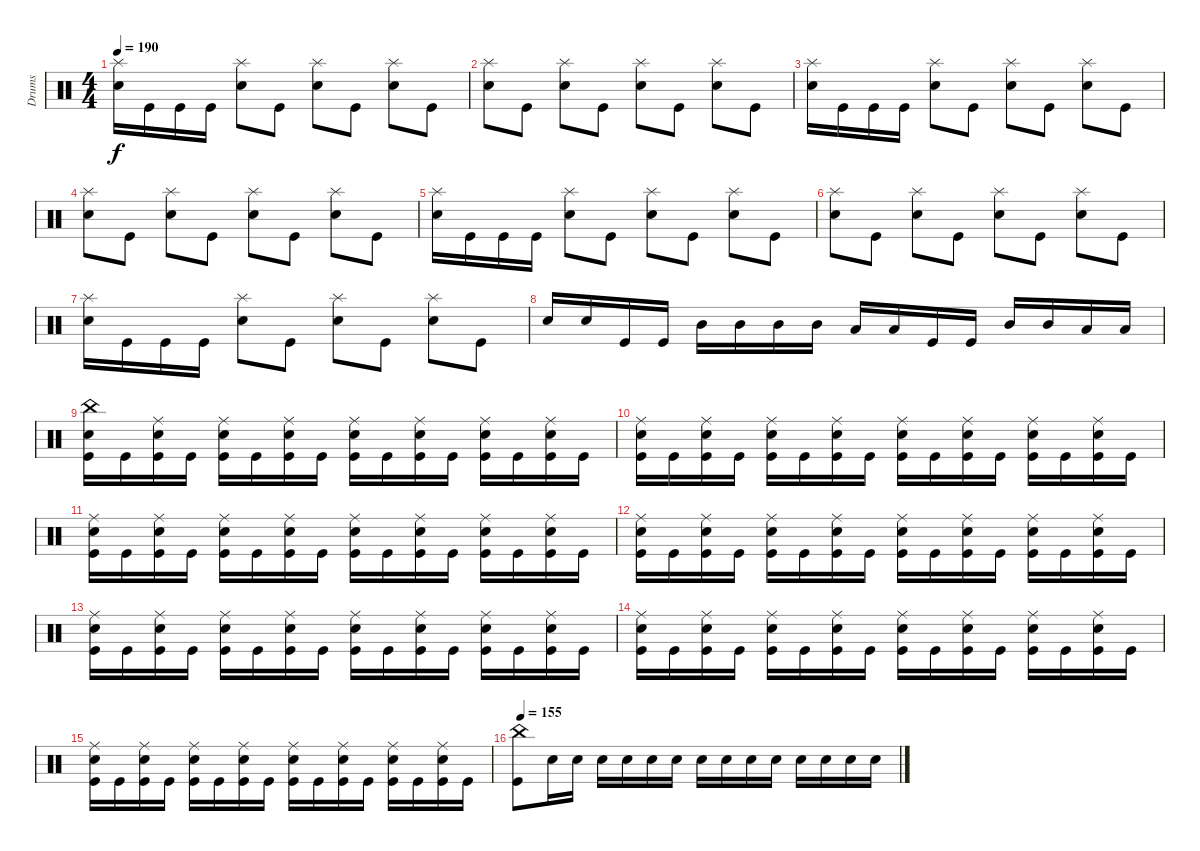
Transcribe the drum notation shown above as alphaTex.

\track ("Drums" "Drums") {instrument percussion}
\staff {score}
\articulation defaults
\ts (4 4)
\tempo 190
\clef neutral
\ks c
("Splash (hit)" "Electric Snare (hit)").16{dy f} "Kick (hit)".16 "Kick (hit)".16 "Kick (hit)".16 ("Splash (hit)" "Electric Snare (hit)").8 "Kick (hit)".8 ("Splash (hit)" "Electric Snare (hit)").8 "Kick (hit)".8 ("Splash (hit)" "Electric Snare (hit)").8 "Kick (hit)".8 |
("Splash (hit)" "Electric Snare (hit)").8 "Kick (hit)".8 ("Splash (hit)" "Electric Snare (hit)").8 "Kick (hit)".8 ("Splash (hit)" "Electric Snare (hit)").8 "Kick (hit)".8 ("Splash (hit)" "Electric Snare (hit)").8 "Kick (hit)".8 |
("Splash (hit)" "Electric Snare (hit)").16 "Kick (hit)".16 "Kick (hit)".16 "Kick (hit)".16 ("Splash (hit)" "Electric Snare (hit)").8 "Kick (hit)".8 ("Splash (hit)" "Electric Snare (hit)").8 "Kick (hit)".8 ("Splash (hit)" "Electric Snare (hit)").8 "Kick (hit)".8 |
("Splash (hit)" "Electric Snare (hit)").8 "Kick (hit)".8 ("Splash (hit)" "Electric Snare (hit)").8 "Kick (hit)".8 ("Splash (hit)" "Electric Snare (hit)").8 "Kick (hit)".8 ("Splash (hit)" "Electric Snare (hit)").8 "Kick (hit)".8 |
("Splash (hit)" "Electric Snare (hit)").16 "Kick (hit)".16 "Kick (hit)".16 "Kick (hit)".16 ("Splash (hit)" "Electric Snare (hit)").8 "Kick (hit)".8 ("Splash (hit)" "Electric Snare (hit)").8 "Kick (hit)".8 ("Splash (hit)" "Electric Snare (hit)").8 "Kick (hit)".8 |
("Splash (hit)" "Electric Snare (hit)").8 "Kick (hit)".8 ("Splash (hit)" "Electric Snare (hit)").8 "Kick (hit)".8 ("Splash (hit)" "Electric Snare (hit)").8 "Kick (hit)".8 ("Splash (hit)" "Electric Snare (hit)").8 "Kick (hit)".8 |
("Splash (hit)" "Electric Snare (hit)").16 "Kick (hit)".16 "Kick (hit)".16 "Kick (hit)".16 ("Splash (hit)" "Electric Snare (hit)").8 "Kick (hit)".8 ("Splash (hit)" "Electric Snare (hit)").8 "Kick (hit)".8 ("Splash (hit)" "Electric Snare (hit)").8 "Kick (hit)".8 |
"Electric Snare (hit)".16 "Electric Snare (hit)".16 "Kick (hit)".16 "Kick (hit)".16 "Mid Tom (hit)".16 "Mid Tom (hit)".16 "Mid Tom (hit)".16 "Mid Tom (hit)".16 "Low Tom (hit)".16 "Low Tom (hit)".16 "Kick (hit)".16 "Kick (hit)".16 "Mid Tom (hit)".16 "Mid Tom (hit)".16 "Low Tom (hit)".16 "Low Tom (hit)".16 |
("China (hit)" "Electric Snare (hit)" "Kick (hit)").16 "Kick (hit)".16 ("Ride (middle)" "Electric Snare (hit)" "Kick (hit)").16 "Kick (hit)".16 ("Ride (middle)" "Electric Snare (hit)" "Kick (hit)").16 "Kick (hit)".16 ("Ride (middle)" "Electric Snare (hit)" "Kick (hit)").16 "Kick (hit)".16 ("Ride (middle)" "Electric Snare (hit)" "Kick (hit)").16 "Kick (hit)".16 ("Ride (middle)" "Electric Snare (hit)" "Kick (hit)").16 "Kick (hit)".16 ("Ride (middle)" "Electric Snare (hit)" "Kick (hit)").16 "Kick (hit)".16 ("Ride (middle)" "Electric Snare (hit)" "Kick (hit)").16 "Kick (hit)".16 |
("Ride (middle)" "Electric Snare (hit)" "Kick (hit)").16 "Kick (hit)".16 ("Ride (middle)" "Electric Snare (hit)" "Kick (hit)").16 "Kick (hit)".16 ("Ride (middle)" "Electric Snare (hit)" "Kick (hit)").16 "Kick (hit)".16 ("Ride (middle)" "Electric Snare (hit)" "Kick (hit)").16 "Kick (hit)".16 ("Ride (middle)" "Electric Snare (hit)" "Kick (hit)").16 "Kick (hit)".16 ("Ride (middle)" "Electric Snare (hit)" "Kick (hit)").16 "Kick (hit)".16 ("Ride (middle)" "Electric Snare (hit)" "Kick (hit)").16 "Kick (hit)".16 ("Ride (middle)" "Electric Snare (hit)" "Kick (hit)").16 "Kick (hit)".16 |
("Ride (middle)" "Electric Snare (hit)" "Kick (hit)").16 "Kick (hit)".16 ("Ride (middle)" "Electric Snare (hit)" "Kick (hit)").16 "Kick (hit)".16 ("Ride (middle)" "Electric Snare (hit)" "Kick (hit)").16 "Kick (hit)".16 ("Ride (middle)" "Electric Snare (hit)" "Kick (hit)").16 "Kick (hit)".16 ("Ride (middle)" "Electric Snare (hit)" "Kick (hit)").16 "Kick (hit)".16 ("Ride (middle)" "Electric Snare (hit)" "Kick (hit)").16 "Kick (hit)".16 ("Ride (middle)" "Electric Snare (hit)" "Kick (hit)").16 "Kick (hit)".16 ("Ride (middle)" "Electric Snare (hit)" "Kick (hit)").16 "Kick (hit)".16 |
("Ride (middle)" "Electric Snare (hit)" "Kick (hit)").16 "Kick (hit)".16 ("Ride (middle)" "Electric Snare (hit)" "Kick (hit)").16 "Kick (hit)".16 ("Ride (middle)" "Electric Snare (hit)" "Kick (hit)").16 "Kick (hit)".16 ("Ride (middle)" "Electric Snare (hit)" "Kick (hit)").16 "Kick (hit)".16 ("Ride (middle)" "Electric Snare (hit)" "Kick (hit)").16 "Kick (hit)".16 ("Ride (middle)" "Electric Snare (hit)" "Kick (hit)").16 "Kick (hit)".16 ("Ride (middle)" "Electric Snare (hit)" "Kick (hit)").16 "Kick (hit)".16 ("Ride (middle)" "Electric Snare (hit)" "Kick (hit)").16 "Kick (hit)".16 |
("Ride (middle)" "Electric Snare (hit)" "Kick (hit)").16 "Kick (hit)".16 ("Ride (middle)" "Electric Snare (hit)" "Kick (hit)").16 "Kick (hit)".16 ("Ride (middle)" "Electric Snare (hit)" "Kick (hit)").16 "Kick (hit)".16 ("Ride (middle)" "Electric Snare (hit)" "Kick (hit)").16 "Kick (hit)".16 ("Ride (middle)" "Electric Snare (hit)" "Kick (hit)").16 "Kick (hit)".16 ("Ride (middle)" "Electric Snare (hit)" "Kick (hit)").16 "Kick (hit)".16 ("Ride (middle)" "Electric Snare (hit)" "Kick (hit)").16 "Kick (hit)".16 ("Ride (middle)" "Electric Snare (hit)" "Kick (hit)").16 "Kick (hit)".16 |
("Ride (middle)" "Electric Snare (hit)" "Kick (hit)").16 "Kick (hit)".16 ("Ride (middle)" "Electric Snare (hit)" "Kick (hit)").16 "Kick (hit)".16 ("Ride (middle)" "Electric Snare (hit)" "Kick (hit)").16 "Kick (hit)".16 ("Ride (middle)" "Electric Snare (hit)" "Kick (hit)").16 "Kick (hit)".16 ("Ride (middle)" "Electric Snare (hit)" "Kick (hit)").16 "Kick (hit)".16 ("Ride (middle)" "Electric Snare (hit)" "Kick (hit)").16 "Kick (hit)".16 ("Ride (middle)" "Electric Snare (hit)" "Kick (hit)").16 "Kick (hit)".16 ("Ride (middle)" "Electric Snare (hit)" "Kick (hit)").16 "Kick (hit)".16 |
("Ride (middle)" "Electric Snare (hit)" "Kick (hit)").16 "Kick (hit)".16 ("Ride (middle)" "Electric Snare (hit)" "Kick (hit)").16 "Kick (hit)".16 ("Ride (middle)" "Electric Snare (hit)" "Kick (hit)").16 "Kick (hit)".16 ("Ride (middle)" "Electric Snare (hit)" "Kick (hit)").16 "Kick (hit)".16 ("Ride (middle)" "Electric Snare (hit)" "Kick (hit)").16 "Kick (hit)".16 ("Ride (middle)" "Electric Snare (hit)" "Kick (hit)").16 "Kick (hit)".16 ("Ride (middle)" "Electric Snare (hit)" "Kick (hit)").16 "Kick (hit)".16 ("Ride (middle)" "Electric Snare (hit)" "Kick (hit)").16 "Kick (hit)".16 |
\tempo 155
("Kick (hit)" "China (hit)").8 "Electric Snare (hit)".16 "Electric Snare (hit)".16 "Electric Snare (hit)".16 "Electric Snare (hit)".16 "Electric Snare (hit)".16 "Electric Snare (hit)".16 "Electric Snare (hit)".16 "Electric Snare (hit)".16 "Electric Snare (hit)".16 "Electric Snare (hit)".16 "Electric Snare (hit)".16 "Electric Snare (hit)".16 "Electric Snare (hit)".16 "Electric Snare (hit)".16
